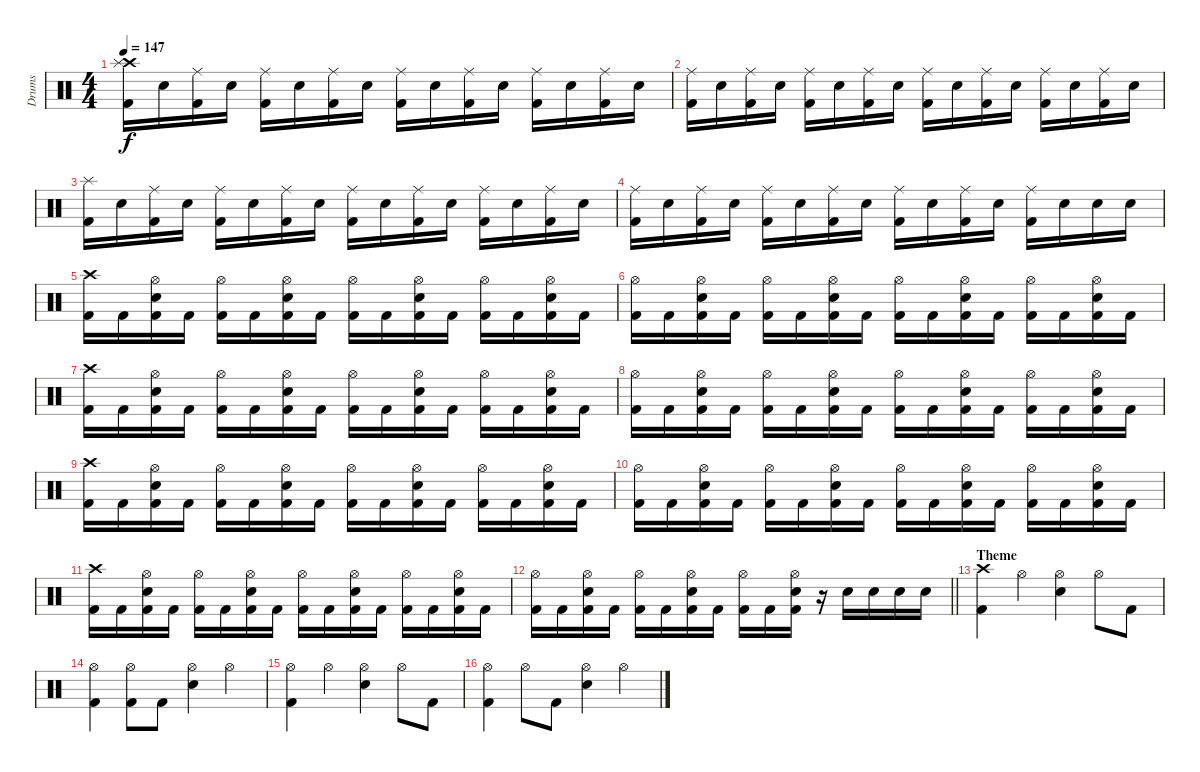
\track ("Drums" "Drums") {instrument percussion}
\staff {score}
\articulation defaults
\ts (4 4)
\tempo 147
\clef neutral
\ks c
("Crash high (hit)" "Splash (hit)" "Kick (hit) 2").16{dy f} "Electric Snare (hit)".16 ("Ride (middle)" "Kick (hit) 2").16 "Electric Snare (hit)".16 ("Ride (middle)" "Kick (hit) 2").16 "Electric Snare (hit)".16 ("Ride (middle)" "Kick (hit) 2").16 "Electric Snare (hit)".16 ("Ride (middle)" "Kick (hit) 2").16 "Electric Snare (hit)".16 ("Ride (middle)" "Kick (hit) 2").16 "Electric Snare (hit)".16 ("Ride (middle)" "Kick (hit) 2").16 "Electric Snare (hit)".16 ("Ride (middle)" "Kick (hit) 2").16 "Electric Snare (hit)".16 |
("Ride (middle)" "Kick (hit) 2").16 "Electric Snare (hit)".16 ("Ride (middle)" "Kick (hit) 2").16 "Electric Snare (hit)".16 ("Ride (middle)" "Kick (hit) 2").16 "Electric Snare (hit)".16 ("Ride (middle)" "Kick (hit) 2").16 "Electric Snare (hit)".16 ("Ride (middle)" "Kick (hit) 2").16 "Electric Snare (hit)".16 ("Ride (middle)" "Kick (hit) 2").16 "Electric Snare (hit)".16 ("Ride (middle)" "Kick (hit) 2").16 "Electric Snare (hit)".16 ("Ride (middle)" "Kick (hit) 2").16 "Electric Snare (hit)".16 |
("Splash (hit)" "Kick (hit) 2").16 "Electric Snare (hit)".16 ("Ride (middle)" "Kick (hit) 2").16 "Electric Snare (hit)".16 ("Ride (middle)" "Kick (hit) 2").16 "Electric Snare (hit)".16 ("Ride (middle)" "Kick (hit) 2").16 "Electric Snare (hit)".16 ("Ride (middle)" "Kick (hit) 2").16 "Electric Snare (hit)".16 ("Ride (middle)" "Kick (hit) 2").16 "Electric Snare (hit)".16 ("Ride (middle)" "Kick (hit) 2").16 "Electric Snare (hit)".16 ("Ride (middle)" "Kick (hit) 2").16 "Electric Snare (hit)".16 |
("Ride (middle)" "Kick (hit) 2").16 "Electric Snare (hit)".16 ("Ride (middle)" "Kick (hit) 2").16 "Electric Snare (hit)".16 ("Ride (middle)" "Kick (hit) 2").16 "Electric Snare (hit)".16 ("Ride (middle)" "Kick (hit) 2").16 "Electric Snare (hit)".16 ("Ride (middle)" "Kick (hit) 2").16 "Electric Snare (hit)".16 ("Ride (middle)" "Kick (hit) 2").16 "Electric Snare (hit)".16 ("Ride (middle)" "Kick (hit) 2").16 "Electric Snare (hit)".16 "Electric Snare (hit)".16 "Electric Snare (hit)".16 |
("Crash high (hit)" "Kick (hit) 2").16 "Kick (hit) 2".16 ("Hi-Hat (open)" "Electric Snare (hit)" "Kick (hit) 2").16 "Kick (hit) 2".16 ("Hi-Hat (open)" "Kick (hit) 2").16 "Kick (hit) 2".16 ("Hi-Hat (open)" "Electric Snare (hit)" "Kick (hit) 2").16 "Kick (hit) 2".16 ("Hi-Hat (open)" "Kick (hit) 2").16 "Kick (hit) 2".16 ("Hi-Hat (open)" "Electric Snare (hit)" "Kick (hit) 2").16 "Kick (hit) 2".16 ("Hi-Hat (open)" "Kick (hit) 2").16 "Kick (hit) 2".16 ("Hi-Hat (open)" "Electric Snare (hit)" "Kick (hit) 2").16 "Kick (hit) 2".16 |
("Hi-Hat (open)" "Kick (hit) 2").16 "Kick (hit) 2".16 ("Hi-Hat (open)" "Electric Snare (hit)" "Kick (hit) 2").16 "Kick (hit) 2".16 ("Hi-Hat (open)" "Kick (hit) 2").16 "Kick (hit) 2".16 ("Hi-Hat (open)" "Electric Snare (hit)" "Kick (hit) 2").16 "Kick (hit) 2".16 ("Hi-Hat (open)" "Kick (hit) 2").16 "Kick (hit) 2".16 ("Hi-Hat (open)" "Electric Snare (hit)" "Kick (hit) 2").16 "Kick (hit) 2".16 ("Hi-Hat (open)" "Kick (hit) 2").16 "Kick (hit) 2".16 ("Hi-Hat (open)" "Electric Snare (hit)" "Kick (hit) 2").16 "Kick (hit) 2".16 |
("Crash high (hit)" "Kick (hit) 2").16 "Kick (hit) 2".16 ("Hi-Hat (open)" "Electric Snare (hit)" "Kick (hit) 2").16 "Kick (hit) 2".16 ("Hi-Hat (open)" "Kick (hit) 2").16 "Kick (hit) 2".16 ("Hi-Hat (open)" "Electric Snare (hit)" "Kick (hit) 2").16 "Kick (hit) 2".16 ("Hi-Hat (open)" "Kick (hit) 2").16 "Kick (hit) 2".16 ("Hi-Hat (open)" "Electric Snare (hit)" "Kick (hit) 2").16 "Kick (hit) 2".16 ("Hi-Hat (open)" "Kick (hit) 2").16 "Kick (hit) 2".16 ("Hi-Hat (open)" "Electric Snare (hit)" "Kick (hit) 2").16 "Kick (hit) 2".16 |
("Hi-Hat (open)" "Kick (hit) 2").16 "Kick (hit) 2".16 ("Hi-Hat (open)" "Electric Snare (hit)" "Kick (hit) 2").16 "Kick (hit) 2".16 ("Hi-Hat (open)" "Kick (hit) 2").16 "Kick (hit) 2".16 ("Hi-Hat (open)" "Electric Snare (hit)" "Kick (hit) 2").16 "Kick (hit) 2".16 ("Hi-Hat (open)" "Kick (hit) 2").16 "Kick (hit) 2".16 ("Hi-Hat (open)" "Electric Snare (hit)" "Kick (hit) 2").16 "Kick (hit) 2".16 ("Hi-Hat (open)" "Kick (hit) 2").16 "Kick (hit) 2".16 ("Hi-Hat (open)" "Electric Snare (hit)" "Kick (hit) 2").16 "Kick (hit) 2".16 |
("Crash high (hit)" "Kick (hit) 2").16 "Kick (hit) 2".16 ("Hi-Hat (open)" "Electric Snare (hit)" "Kick (hit) 2").16 "Kick (hit) 2".16 ("Hi-Hat (open)" "Kick (hit) 2").16 "Kick (hit) 2".16 ("Hi-Hat (open)" "Electric Snare (hit)" "Kick (hit) 2").16 "Kick (hit) 2".16 ("Hi-Hat (open)" "Kick (hit) 2").16 "Kick (hit) 2".16 ("Hi-Hat (open)" "Electric Snare (hit)" "Kick (hit) 2").16 "Kick (hit) 2".16 ("Hi-Hat (open)" "Kick (hit) 2").16 "Kick (hit) 2".16 ("Hi-Hat (open)" "Electric Snare (hit)" "Kick (hit) 2").16 "Kick (hit) 2".16 |
("Hi-Hat (open)" "Kick (hit) 2").16 "Kick (hit) 2".16 ("Hi-Hat (open)" "Electric Snare (hit)" "Kick (hit) 2").16 "Kick (hit) 2".16 ("Hi-Hat (open)" "Kick (hit) 2").16 "Kick (hit) 2".16 ("Hi-Hat (open)" "Electric Snare (hit)" "Kick (hit) 2").16 "Kick (hit) 2".16 ("Hi-Hat (open)" "Kick (hit) 2").16 "Kick (hit) 2".16 ("Hi-Hat (open)" "Electric Snare (hit)" "Kick (hit) 2").16 "Kick (hit) 2".16 ("Hi-Hat (open)" "Kick (hit) 2").16 "Kick (hit) 2".16 ("Hi-Hat (open)" "Electric Snare (hit)" "Kick (hit) 2").16 "Kick (hit) 2".16 |
("Crash high (hit)" "Kick (hit) 2").16 "Kick (hit) 2".16 ("Hi-Hat (open)" "Electric Snare (hit)" "Kick (hit) 2").16 "Kick (hit) 2".16 ("Hi-Hat (open)" "Kick (hit) 2").16 "Kick (hit) 2".16 ("Hi-Hat (open)" "Electric Snare (hit)" "Kick (hit) 2").16 "Kick (hit) 2".16 ("Hi-Hat (open)" "Kick (hit) 2").16 "Kick (hit) 2".16 ("Hi-Hat (open)" "Electric Snare (hit)" "Kick (hit) 2").16 "Kick (hit) 2".16 ("Hi-Hat (open)" "Kick (hit) 2").16 "Kick (hit) 2".16 ("Hi-Hat (open)" "Electric Snare (hit)" "Kick (hit) 2").16 "Kick (hit) 2".16 |
\barLineRight lightlight
("Hi-Hat (open)" "Kick (hit) 2").16 "Kick (hit) 2".16 ("Hi-Hat (open)" "Electric Snare (hit)" "Kick (hit) 2").16 "Kick (hit) 2".16 ("Hi-Hat (open)" "Kick (hit) 2").16 "Kick (hit) 2".16 ("Hi-Hat (open)" "Electric Snare (hit)" "Kick (hit) 2").16 "Kick (hit) 2".16 ("Hi-Hat (open)" "Kick (hit) 2").16 "Kick (hit) 2".16 ("Hi-Hat (open)" "Electric Snare (hit)" "Kick (hit) 2").16 r.16 "Electric Snare (hit)".16 "Electric Snare (hit)".16 "Electric Snare (hit)".16 "Electric Snare (hit)".16 |
\section ("" "Theme")
("Crash high (hit)" "Kick (hit) 2").4 "Hi-Hat (open)".4 ("Hi-Hat (open)" "Electric Snare (hit)").4 "Hi-Hat (open)".8 "Kick (hit) 2".8 |
("Hi-Hat (open)" "Kick (hit) 2").4 ("Hi-Hat (open)" "Kick (hit) 2").8 "Kick (hit) 2".8 ("Hi-Hat (open)" "Electric Snare (hit)").4 "Hi-Hat (open)".4 |
("Hi-Hat (open)" "Kick (hit) 2").4 "Hi-Hat (open)".4 ("Hi-Hat (open)" "Electric Snare (hit)").4 "Hi-Hat (open)".8 "Kick (hit) 2".8 |
("Hi-Hat (open)" "Kick (hit) 2").4 "Hi-Hat (open)".8 "Kick (hit) 2".8 ("Hi-Hat (open)" "Electric Snare (hit)").4 "Hi-Hat (open)".4
